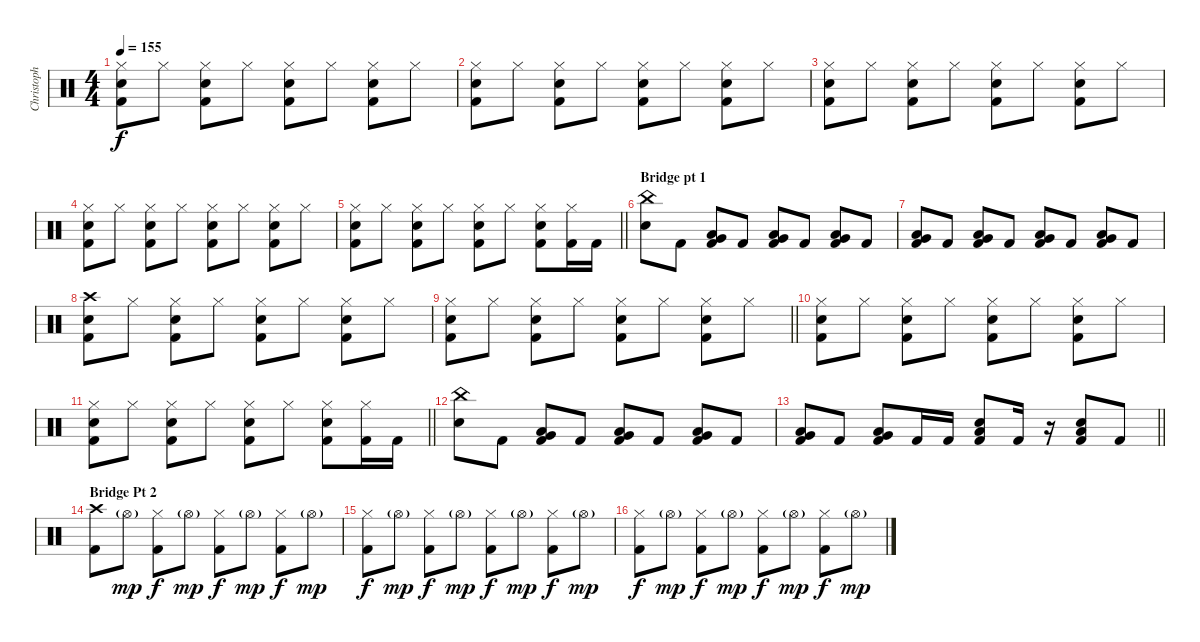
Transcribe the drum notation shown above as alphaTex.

\track ("Christoph \"Doom\" Schneider" "Christoph ") {instrument percussion}
\staff {score}
\articulation defaults
\ts (4 4)
\tempo 155
\clef neutral
\ks c
("Hi-Hat (closed)" "Snare (hit) 2" "Kick (hit) 2").8{dy f} "Hi-Hat (closed)".8 ("Hi-Hat (closed)" "Snare (hit) 2" "Kick (hit) 2").8 "Hi-Hat (closed)".8 ("Hi-Hat (closed)" "Snare (hit) 2" "Kick (hit) 2").8 "Hi-Hat (closed)".8 ("Hi-Hat (closed)" "Snare (hit) 2" "Kick (hit) 2").8 "Hi-Hat (closed)".8 |
("Hi-Hat (closed)" "Snare (hit) 2" "Kick (hit) 2").8 "Hi-Hat (closed)".8 ("Hi-Hat (closed)" "Snare (hit) 2" "Kick (hit) 2").8 "Hi-Hat (closed)".8 ("Hi-Hat (closed)" "Snare (hit) 2" "Kick (hit) 2").8 "Hi-Hat (closed)".8 ("Hi-Hat (closed)" "Snare (hit) 2" "Kick (hit) 2").8 "Hi-Hat (closed)".8 |
("Hi-Hat (closed)" "Snare (hit) 2" "Kick (hit) 2").8 "Hi-Hat (closed)".8 ("Hi-Hat (closed)" "Snare (hit) 2" "Kick (hit) 2").8 "Hi-Hat (closed)".8 ("Hi-Hat (closed)" "Snare (hit) 2" "Kick (hit) 2").8 "Hi-Hat (closed)".8 ("Hi-Hat (closed)" "Snare (hit) 2" "Kick (hit) 2").8 "Hi-Hat (closed)".8 |
("Hi-Hat (closed)" "Snare (hit) 2" "Kick (hit) 2").8 "Hi-Hat (closed)".8 ("Hi-Hat (closed)" "Snare (hit) 2" "Kick (hit) 2").8 "Hi-Hat (closed)".8 ("Hi-Hat (closed)" "Snare (hit) 2" "Kick (hit) 2").8 "Hi-Hat (closed)".8 ("Hi-Hat (closed)" "Snare (hit) 2" "Kick (hit) 2").8 "Hi-Hat (closed)".8 |
\barLineRight lightlight
("Hi-Hat (closed)" "Snare (hit) 2" "Kick (hit) 2").8 "Hi-Hat (closed)".8 ("Hi-Hat (closed)" "Snare (hit) 2" "Kick (hit) 2").8 "Hi-Hat (closed)".8 ("Hi-Hat (closed)" "Snare (hit) 2" "Kick (hit) 2").8 "Hi-Hat (closed)".8 ("Hi-Hat (closed)" "Snare (hit) 2" "Kick (hit) 2").8 ("Hi-Hat (closed)" "Kick (hit) 2").16 "Kick (hit) 2".16 |
\section ("" "Bridge pt 1")
("China (hit)" "Snare (hit) 2").8 "Kick (hit) 2".8 ("Very Low Tom (hit)" "Low Floor Tom (hit)" "Kick (hit) 2").8 "Kick (hit) 2".8 ("Very Low Tom (hit)" "Low Floor Tom (hit)" "Kick (hit) 2").8 "Kick (hit) 2".8 ("Very Low Tom (hit)" "Low Floor Tom (hit)" "Kick (hit) 2").8 "Kick (hit) 2".8 |
("Very Low Tom (hit)" "Low Floor Tom (hit)" "Kick (hit) 2").8 "Kick (hit) 2".8 ("Very Low Tom (hit)" "Low Floor Tom (hit)" "Kick (hit) 2").8 "Kick (hit) 2".8 ("Very Low Tom (hit)" "Low Floor Tom (hit)" "Kick (hit) 2").8 "Kick (hit) 2".8 ("Very Low Tom (hit)" "Low Floor Tom (hit)" "Kick (hit) 2").8 "Kick (hit) 2".8 |
("Crash high (hit)" "Snare (hit) 2" "Kick (hit) 2").8 "Hi-Hat (closed)".8 ("Hi-Hat (closed)" "Snare (hit) 2" "Kick (hit) 2").8 "Hi-Hat (closed)".8 ("Hi-Hat (closed)" "Snare (hit) 2" "Kick (hit) 2").8 "Hi-Hat (closed)".8 ("Hi-Hat (closed)" "Snare (hit) 2" "Kick (hit) 2").8 "Hi-Hat (closed)".8 |
\barLineRight lightlight
("Hi-Hat (closed)" "Snare (hit) 2" "Kick (hit) 2").8 "Hi-Hat (closed)".8 ("Hi-Hat (closed)" "Snare (hit) 2" "Kick (hit) 2").8 "Hi-Hat (closed)".8 ("Hi-Hat (closed)" "Snare (hit) 2" "Kick (hit) 2").8 "Hi-Hat (closed)".8 ("Hi-Hat (closed)" "Snare (hit) 2" "Kick (hit) 2").8 "Hi-Hat (closed)".8 |
("Hi-Hat (closed)" "Snare (hit) 2" "Kick (hit) 2").8 "Hi-Hat (closed)".8 ("Hi-Hat (closed)" "Snare (hit) 2" "Kick (hit) 2").8 "Hi-Hat (closed)".8 ("Hi-Hat (closed)" "Snare (hit) 2" "Kick (hit) 2").8 "Hi-Hat (closed)".8 ("Hi-Hat (closed)" "Snare (hit) 2" "Kick (hit) 2").8 "Hi-Hat (closed)".8 |
\barLineRight lightlight
("Hi-Hat (closed)" "Snare (hit) 2" "Kick (hit) 2").8 "Hi-Hat (closed)".8 ("Hi-Hat (closed)" "Snare (hit) 2" "Kick (hit) 2").8 "Hi-Hat (closed)".8 ("Hi-Hat (closed)" "Snare (hit) 2" "Kick (hit) 2").8 "Hi-Hat (closed)".8 ("Hi-Hat (closed)" "Snare (hit) 2" "Kick (hit) 2").8 ("Hi-Hat (closed)" "Kick (hit) 2").16 "Kick (hit) 2".16 |
("China (hit)" "Snare (hit) 2").8 "Kick (hit) 2".8 ("Very Low Tom (hit)" "Low Floor Tom (hit)" "Kick (hit) 2").8 "Kick (hit) 2".8 ("Very Low Tom (hit)" "Low Floor Tom (hit)" "Kick (hit) 2").8 "Kick (hit) 2".8 ("Very Low Tom (hit)" "Low Floor Tom (hit)" "Kick (hit) 2").8 "Kick (hit) 2".8 |
\barLineRight lightlight
("Very Low Tom (hit)" "Low Floor Tom (hit)" "Kick (hit) 2").8 "Kick (hit) 2".8 ("Very Low Tom (hit)" "Low Floor Tom (hit)" "Kick (hit) 2").8 "Kick (hit) 2".16 "Kick (hit) 2".16 ("Snare (hit) 2" "Low Floor Tom (hit)" "Kick (hit) 2").8 "Kick (hit) 2".16 r.16 ("Snare (hit) 2" "Low Floor Tom (hit)" "Kick (hit) 2").8 "Kick (hit) 2".8 |
\section ("" "Bridge Pt 2")
("Crash high (hit)" "Kick (hit) 2").8{volume 8} "Hi-Hat (open)"{g}.8{dy mp} ("Hi-Hat (closed)" "Kick (hit) 2").8{dy f} "Hi-Hat (open)"{g}.8{dy mp} ("Hi-Hat (closed)" "Kick (hit) 2").8{dy f} "Hi-Hat (open)"{g}.8{dy mp} ("Hi-Hat (closed)" "Kick (hit) 2").8{dy f} "Hi-Hat (open)"{g}.8{dy mp} |
("Hi-Hat (closed)" "Kick (hit) 2").8{dy f} "Hi-Hat (open)"{g}.8{dy mp} ("Hi-Hat (closed)" "Kick (hit) 2").8{dy f} "Hi-Hat (open)"{g}.8{dy mp} ("Hi-Hat (closed)" "Kick (hit) 2").8{dy f} "Hi-Hat (open)"{g}.8{dy mp} ("Hi-Hat (closed)" "Kick (hit) 2").8{dy f} "Hi-Hat (open)"{g}.8{dy mp} |
("Hi-Hat (closed)" "Kick (hit) 2").8{dy f} "Hi-Hat (open)"{g}.8{dy mp} ("Hi-Hat (closed)" "Kick (hit) 2").8{dy f} "Hi-Hat (open)"{g}.8{dy mp} ("Hi-Hat (closed)" "Kick (hit) 2").8{dy f} "Hi-Hat (open)"{g}.8{dy mp} ("Hi-Hat (closed)" "Kick (hit) 2").8{dy f} "Hi-Hat (open)"{g}.8{dy mp}
